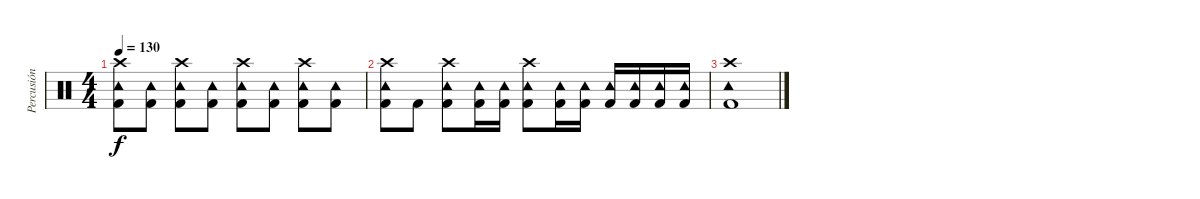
\track ("Percusión" "Percusión") {instrument percussion}
\staff {score}
\articulation defaults
\ts (4 4)
\tempo 130
\clef neutral
\ks c
("Tambourine (hit)" "Kick (hit) 2" "Crash high (hit)").8{dy f} ("Tambourine (hit)" "Kick (hit) 2").8 ("Tambourine (hit)" "Kick (hit) 2" "Crash high (hit)").8 ("Tambourine (hit)" "Kick (hit) 2").8 ("Tambourine (hit)" "Kick (hit) 2" "Crash high (hit)").8 ("Tambourine (hit)" "Kick (hit) 2").8 ("Tambourine (hit)" "Kick (hit) 2" "Crash high (hit)").8 ("Tambourine (hit)" "Kick (hit) 2").8 |
("Tambourine (hit)" "Kick (hit) 2" "Crash high (hit)").8 "Kick (hit) 2".8 ("Tambourine (hit)" "Kick (hit) 2" "Crash high (hit)").8 ("Tambourine (hit)" "Kick (hit) 2").16 ("Tambourine (hit)" "Kick (hit) 2").16 ("Tambourine (hit)" "Kick (hit) 2" "Crash high (hit)").8 ("Tambourine (hit)" "Kick (hit) 2").16 ("Tambourine (hit)" "Kick (hit) 2").16 ("Tambourine (hit)" "Kick (hit) 2").16 ("Tambourine (hit)" "Kick (hit) 2").16 ("Tambourine (hit)" "Kick (hit) 2").16 ("Tambourine (hit)" "Kick (hit) 2").16 |
("Tambourine (hit)" "Kick (hit) 2" "Crash high (hit)").1
